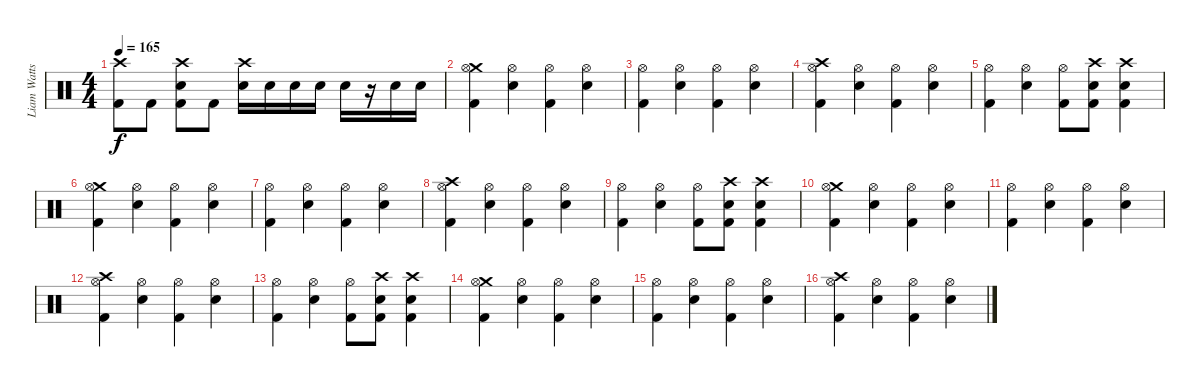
\track ("Liam Watts (Percussion)" "Liam Watts") {instrument percussion}
\staff {score}
\articulation defaults
\ts (4 4)
\tempo 165
\clef neutral
\ks c
("Crash high (hit)" "Kick (hit) 2").8{dy f} "Kick (hit) 2".8 ("Crash high (hit)" "Snare (hit) 2" "Kick (hit) 2").8 "Kick (hit) 2".8 ("Crash high (hit)" "Snare (hit) 2").16 "Snare (hit) 2".16 "Snare (hit) 2".16 "Snare (hit) 2".16 "Snare (hit) 2".16 r.16 "Snare (hit) 2".16 "Snare (hit) 2".16 |
("Crash medium (hit)" "Hi-Hat (open)" "Kick (hit) 2").4 ("Hi-Hat (open)" "Snare (hit) 2").4 ("Hi-Hat (open)" "Kick (hit) 2").4 ("Hi-Hat (open)" "Snare (hit) 2").4 |
("Hi-Hat (open)" "Kick (hit) 2").4 ("Hi-Hat (open)" "Snare (hit) 2").4 ("Hi-Hat (open)" "Kick (hit) 2").4 ("Hi-Hat (open)" "Snare (hit) 2").4 |
("Crash high (hit)" "Hi-Hat (open)" "Kick (hit) 2").4 ("Hi-Hat (open)" "Snare (hit) 2").4 ("Hi-Hat (open)" "Kick (hit) 2").4 ("Hi-Hat (open)" "Snare (hit) 2").4 |
("Hi-Hat (open)" "Kick (hit) 2").4 ("Hi-Hat (open)" "Snare (hit) 2").4 ("Hi-Hat (open)" "Kick (hit) 2").8 ("Crash high (hit)" "Snare (hit) 2" "Kick (hit) 2").8 ("Crash high (hit)" "Snare (hit) 2" "Kick (hit) 2").4 |
("Crash medium (hit)" "Hi-Hat (open)" "Kick (hit) 2").4 ("Hi-Hat (open)" "Snare (hit) 2").4 ("Hi-Hat (open)" "Kick (hit) 2").4 ("Hi-Hat (open)" "Snare (hit) 2").4 |
("Hi-Hat (open)" "Kick (hit) 2").4 ("Hi-Hat (open)" "Snare (hit) 2").4 ("Hi-Hat (open)" "Kick (hit) 2").4 ("Hi-Hat (open)" "Snare (hit) 2").4 |
("Crash high (hit)" "Hi-Hat (open)" "Kick (hit) 2").4 ("Hi-Hat (open)" "Snare (hit) 2").4 ("Hi-Hat (open)" "Kick (hit) 2").4 ("Hi-Hat (open)" "Snare (hit) 2").4 |
("Hi-Hat (open)" "Kick (hit) 2").4 ("Hi-Hat (open)" "Snare (hit) 2").4 ("Hi-Hat (open)" "Kick (hit) 2").8 ("Crash high (hit)" "Snare (hit) 2" "Kick (hit) 2").8 ("Crash high (hit)" "Snare (hit) 2" "Kick (hit) 2").4 |
("Crash medium (hit)" "Hi-Hat (open)" "Kick (hit) 2").4 ("Hi-Hat (open)" "Snare (hit) 2").4 ("Hi-Hat (open)" "Kick (hit) 2").4 ("Hi-Hat (open)" "Snare (hit) 2").4 |
("Hi-Hat (open)" "Kick (hit) 2").4 ("Hi-Hat (open)" "Snare (hit) 2").4 ("Hi-Hat (open)" "Kick (hit) 2").4 ("Hi-Hat (open)" "Snare (hit) 2").4 |
("Crash high (hit)" "Hi-Hat (open)" "Kick (hit) 2").4 ("Hi-Hat (open)" "Snare (hit) 2").4 ("Hi-Hat (open)" "Kick (hit) 2").4 ("Hi-Hat (open)" "Snare (hit) 2").4 |
("Hi-Hat (open)" "Kick (hit) 2").4 ("Hi-Hat (open)" "Snare (hit) 2").4 ("Hi-Hat (open)" "Kick (hit) 2").8 ("Crash high (hit)" "Snare (hit) 2" "Kick (hit) 2").8 ("Crash high (hit)" "Snare (hit) 2" "Kick (hit) 2").4 |
("Crash medium (hit)" "Hi-Hat (open)" "Kick (hit) 2").4 ("Hi-Hat (open)" "Snare (hit) 2").4 ("Hi-Hat (open)" "Kick (hit) 2").4 ("Hi-Hat (open)" "Snare (hit) 2").4 |
("Hi-Hat (open)" "Kick (hit) 2").4 ("Hi-Hat (open)" "Snare (hit) 2").4 ("Hi-Hat (open)" "Kick (hit) 2").4 ("Hi-Hat (open)" "Snare (hit) 2").4 |
("Crash high (hit)" "Hi-Hat (open)" "Kick (hit) 2").4 ("Hi-Hat (open)" "Snare (hit) 2").4 ("Hi-Hat (open)" "Kick (hit) 2").4 ("Hi-Hat (open)" "Snare (hit) 2").4
